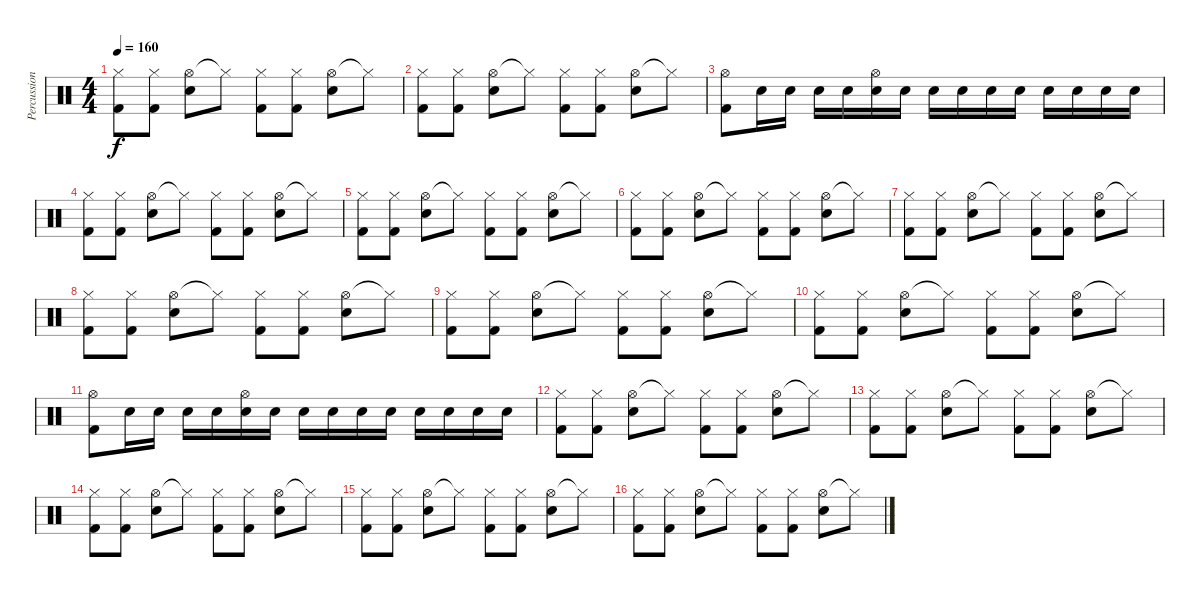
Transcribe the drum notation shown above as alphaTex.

\track ("Percussions" "Percussion") {instrument percussion}
\staff {score}
\articulation defaults
\ts (4 4)
\tempo 160
\clef neutral
\ks c
("Hi-Hat (closed)" "Kick (hit) 2").8{dy f} ("Hi-Hat (closed)" "Kick (hit) 2").8 ("Hi-Hat (open)" "Snare (hit) 2").8 "Hi-Hat (closed)"{t}.8 ("Hi-Hat (closed)" "Kick (hit) 2").8 ("Hi-Hat (closed)" "Kick (hit) 2").8 ("Hi-Hat (open)" "Snare (hit) 2").8 "Hi-Hat (closed)"{t}.8 |
("Hi-Hat (closed)" "Kick (hit) 2").8 ("Hi-Hat (closed)" "Kick (hit) 2").8 ("Hi-Hat (open)" "Snare (hit) 2").8 "Hi-Hat (closed)"{t}.8 ("Hi-Hat (closed)" "Kick (hit) 2").8 ("Hi-Hat (closed)" "Kick (hit) 2").8 ("Hi-Hat (open)" "Snare (hit) 2").8 "Hi-Hat (closed)"{t}.8 |
("Hi-Hat (open)" "Kick (hit) 2").8 "Snare (hit) 2".16 "Snare (hit) 2".16 "Snare (hit) 2".16 "Snare (hit) 2".16 ("Hi-Hat (open)" "Snare (hit) 2").16 "Snare (hit) 2".16 "Snare (hit) 2".16 "Snare (hit) 2".16 "Snare (hit) 2".16 "Snare (hit) 2".16 "Snare (hit) 2".16 "Snare (hit) 2".16 "Snare (hit) 2".16 "Snare (hit) 2".16 |
("Hi-Hat (closed)" "Kick (hit) 2").8 ("Hi-Hat (closed)" "Kick (hit) 2").8 ("Hi-Hat (open)" "Snare (hit) 2").8 "Hi-Hat (closed)"{t}.8 ("Hi-Hat (closed)" "Kick (hit) 2").8 ("Hi-Hat (closed)" "Kick (hit) 2").8 ("Hi-Hat (open)" "Snare (hit) 2").8 "Hi-Hat (closed)"{t}.8 |
("Hi-Hat (closed)" "Kick (hit) 2").8 ("Hi-Hat (closed)" "Kick (hit) 2").8 ("Hi-Hat (open)" "Snare (hit) 2").8 "Hi-Hat (closed)"{t}.8 ("Hi-Hat (closed)" "Kick (hit) 2").8 ("Hi-Hat (closed)" "Kick (hit) 2").8 ("Hi-Hat (open)" "Snare (hit) 2").8 "Hi-Hat (closed)"{t}.8 |
("Hi-Hat (closed)" "Kick (hit) 2").8 ("Hi-Hat (closed)" "Kick (hit) 2").8 ("Hi-Hat (open)" "Snare (hit) 2").8 "Hi-Hat (closed)"{t}.8 ("Hi-Hat (closed)" "Kick (hit) 2").8 ("Hi-Hat (closed)" "Kick (hit) 2").8 ("Hi-Hat (open)" "Snare (hit) 2").8 "Hi-Hat (closed)"{t}.8 |
("Hi-Hat (closed)" "Kick (hit) 2").8 ("Hi-Hat (closed)" "Kick (hit) 2").8 ("Hi-Hat (open)" "Snare (hit) 2").8 "Hi-Hat (closed)"{t}.8 ("Hi-Hat (closed)" "Kick (hit) 2").8 ("Hi-Hat (closed)" "Kick (hit) 2").8 ("Hi-Hat (open)" "Snare (hit) 2").8 "Hi-Hat (closed)"{t}.8 |
("Hi-Hat (closed)" "Kick (hit) 2").8 ("Hi-Hat (closed)" "Kick (hit) 2").8 ("Hi-Hat (open)" "Snare (hit) 2").8 "Hi-Hat (closed)"{t}.8 ("Hi-Hat (closed)" "Kick (hit) 2").8 ("Hi-Hat (closed)" "Kick (hit) 2").8 ("Hi-Hat (open)" "Snare (hit) 2").8 "Hi-Hat (closed)"{t}.8 |
("Hi-Hat (closed)" "Kick (hit) 2").8 ("Hi-Hat (closed)" "Kick (hit) 2").8 ("Hi-Hat (open)" "Snare (hit) 2").8 "Hi-Hat (closed)"{t}.8 ("Hi-Hat (closed)" "Kick (hit) 2").8 ("Hi-Hat (closed)" "Kick (hit) 2").8 ("Hi-Hat (open)" "Snare (hit) 2").8 "Hi-Hat (closed)"{t}.8 |
("Hi-Hat (closed)" "Kick (hit) 2").8 ("Hi-Hat (closed)" "Kick (hit) 2").8 ("Hi-Hat (open)" "Snare (hit) 2").8 "Hi-Hat (closed)"{t}.8 ("Hi-Hat (closed)" "Kick (hit) 2").8 ("Hi-Hat (closed)" "Kick (hit) 2").8 ("Hi-Hat (open)" "Snare (hit) 2").8 "Hi-Hat (closed)"{t}.8 |
("Hi-Hat (open)" "Kick (hit) 2").8 "Snare (hit) 2".16 "Snare (hit) 2".16 "Snare (hit) 2".16 "Snare (hit) 2".16 ("Hi-Hat (open)" "Snare (hit) 2").16 "Snare (hit) 2".16 "Snare (hit) 2".16 "Snare (hit) 2".16 "Snare (hit) 2".16 "Snare (hit) 2".16 "Snare (hit) 2".16 "Snare (hit) 2".16 "Snare (hit) 2".16 "Snare (hit) 2".16 |
("Hi-Hat (closed)" "Kick (hit) 2").8 ("Hi-Hat (closed)" "Kick (hit) 2").8 ("Hi-Hat (open)" "Snare (hit) 2").8 "Hi-Hat (closed)"{t}.8 ("Hi-Hat (closed)" "Kick (hit) 2").8 ("Hi-Hat (closed)" "Kick (hit) 2").8 ("Hi-Hat (open)" "Snare (hit) 2").8 "Hi-Hat (closed)"{t}.8 |
("Hi-Hat (closed)" "Kick (hit) 2").8 ("Hi-Hat (closed)" "Kick (hit) 2").8 ("Hi-Hat (open)" "Snare (hit) 2").8 "Hi-Hat (closed)"{t}.8 ("Hi-Hat (closed)" "Kick (hit) 2").8 ("Hi-Hat (closed)" "Kick (hit) 2").8 ("Hi-Hat (open)" "Snare (hit) 2").8 "Hi-Hat (closed)"{t}.8 |
("Hi-Hat (closed)" "Kick (hit) 2").8 ("Hi-Hat (closed)" "Kick (hit) 2").8 ("Hi-Hat (open)" "Snare (hit) 2").8 "Hi-Hat (closed)"{t}.8 ("Hi-Hat (closed)" "Kick (hit) 2").8 ("Hi-Hat (closed)" "Kick (hit) 2").8 ("Hi-Hat (open)" "Snare (hit) 2").8 "Hi-Hat (closed)"{t}.8 |
("Hi-Hat (closed)" "Kick (hit) 2").8 ("Hi-Hat (closed)" "Kick (hit) 2").8 ("Hi-Hat (open)" "Snare (hit) 2").8 "Hi-Hat (closed)"{t}.8 ("Hi-Hat (closed)" "Kick (hit) 2").8 ("Hi-Hat (closed)" "Kick (hit) 2").8 ("Hi-Hat (open)" "Snare (hit) 2").8 "Hi-Hat (closed)"{t}.8 |
("Hi-Hat (closed)" "Kick (hit) 2").8 ("Hi-Hat (closed)" "Kick (hit) 2").8 ("Hi-Hat (open)" "Snare (hit) 2").8 "Hi-Hat (closed)"{t}.8 ("Hi-Hat (closed)" "Kick (hit) 2").8 ("Hi-Hat (closed)" "Kick (hit) 2").8 ("Hi-Hat (open)" "Snare (hit) 2").8 "Hi-Hat (closed)"{t}.8
